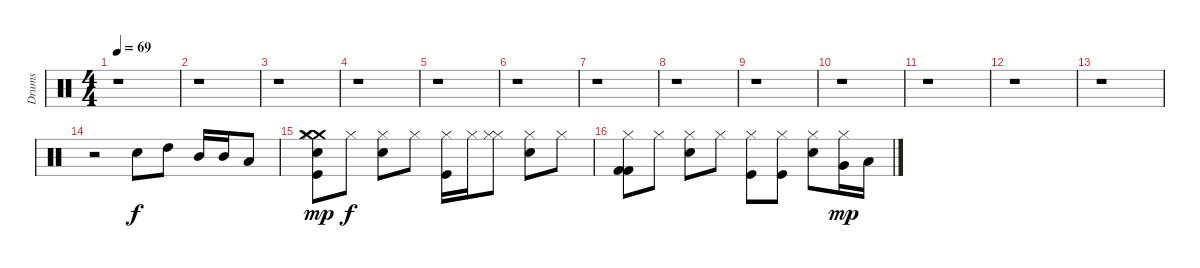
\track ("Drums" "Drums") {instrument percussion}
\staff {score}
\articulation defaults
\ts (4 4)
\tempo 69
\clef neutral
\ks c
r.1{dy f} |
r.1 |
r.1 |
r.1 |
r.1 |
r.1 |
r.1 |
r.1 |
r.1 |
r.1 |
r.1 |
r.1 |
r.1 |
r.2 "Snare (hit) 2".8 "High Tom (hit)".8 "Mid Tom (hit)".16 "Mid Tom (hit)".16 "Low Tom (hit)".8 |
("Kick (hit)" "Crash medium (hit)" "Electric Snare (hit)" "Crash medium (hit)" "Hi-Hat (closed)").8{dy mp} "Hi-Hat (closed)".8{dy f} ("Snare (hit) 2" "Hi-Hat (closed)").8 "Hi-Hat (closed)".8 ("Kick (hit)" "Hi-Hat (closed)").16 "Hi-Hat (closed)".16 ("Hi-Hat (closed)" "Hi-Hat (closed)").8 ("Snare (hit) 2" "Hi-Hat (closed)").8 "Hi-Hat (closed)".8 |
("Hi-Hat (closed)" "Kick (hit) 2" "Kick (hit) 2").8 "Hi-Hat (closed)".8 ("Snare (hit) 2" "Hi-Hat (closed)").8 "Hi-Hat (closed)".8 ("Kick (hit)" "Hi-Hat (closed)").8 ("Kick (hit)" "Hi-Hat (closed)").8 ("Snare (hit) 2" "Hi-Hat (closed)").8 ("Very Low Tom (hit)" "Hi-Hat (closed)").16{dy mp} "Low Floor Tom (hit)".16
